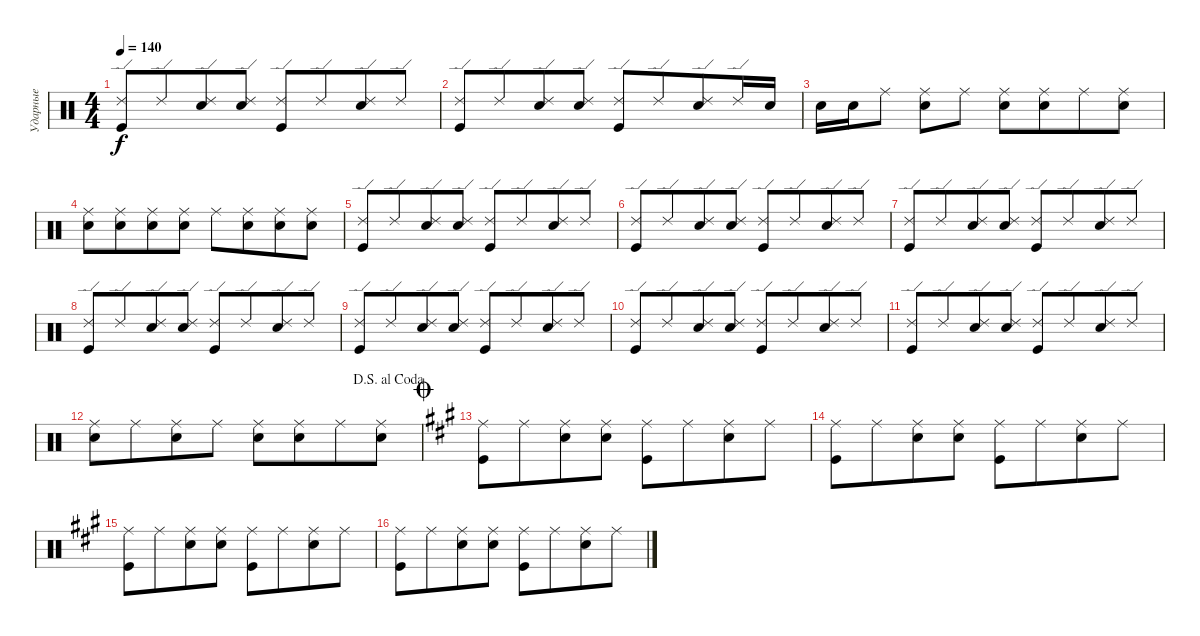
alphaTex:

\track ("Ударные" "Ударные") {instrument percussion}
\staff {score}
\articulation defaults
\ts (4 4)
\tempo 140
\clef neutral
\ks aminor
("Kick (hit)" "Ride (edge) 2").8{dy f} "Ride (edge) 2".8{beam merge} ("Snare (hit) 2" "Ride (edge) 2").8 ("Snare (hit) 2" "Ride (edge) 2").8 ("Kick (hit)" "Ride (edge) 2").8 "Ride (edge) 2".8{beam merge} ("Snare (hit) 2" "Ride (edge) 2").8 "Ride (edge) 2".8 |
("Kick (hit)" "Ride (edge) 2").8 "Ride (edge) 2".8{beam merge} ("Snare (hit) 2" "Ride (edge) 2").8 ("Snare (hit) 2" "Ride (edge) 2").8 ("Kick (hit)" "Ride (edge) 2").8 "Ride (edge) 2".8{beam merge} ("Snare (hit) 2" "Ride (edge) 2").8 "Ride (edge) 2".16 "Snare (hit) 2".16 |
"Snare (hit) 2".16 "Snare (hit) 2".16 "Ride (middle)".8 ("Snare (hit) 2" "Ride (middle)").8 "Ride (middle)".8 ("Snare (hit) 2" "Ride (middle)").8 ("Snare (hit) 2" "Ride (middle)").8{beam merge} "Ride (middle)".8 ("Snare (hit) 2" "Ride (middle)").8 |
("Snare (hit) 2" "Ride (middle)").8 ("Snare (hit) 2" "Ride (middle)").8{beam merge} ("Snare (hit) 2" "Ride (middle)").8 ("Snare (hit) 2" "Ride (middle)").8 "Ride (middle)".8 ("Snare (hit) 2" "Ride (middle)").8{beam merge} ("Ride (middle)" "Snare (hit) 2").8 ("Ride (middle)" "Snare (hit) 2").8 |
("Kick (hit)" "Ride (edge) 2").8 "Ride (edge) 2".8{beam merge} ("Snare (hit) 2" "Ride (edge) 2").8 ("Snare (hit) 2" "Ride (edge) 2").8 ("Kick (hit)" "Ride (edge) 2").8 "Ride (edge) 2".8{beam merge} ("Snare (hit) 2" "Ride (edge) 2").8 "Ride (edge) 2".8 |
("Kick (hit)" "Ride (edge) 2").8 "Ride (edge) 2".8{beam merge} ("Snare (hit) 2" "Ride (edge) 2").8 ("Snare (hit) 2" "Ride (edge) 2").8 ("Kick (hit)" "Ride (edge) 2").8 "Ride (edge) 2".8{beam merge} ("Snare (hit) 2" "Ride (edge) 2").8 "Ride (edge) 2".8 |
("Kick (hit)" "Ride (edge) 2").8 "Ride (edge) 2".8{beam merge} ("Snare (hit) 2" "Ride (edge) 2").8 ("Snare (hit) 2" "Ride (edge) 2").8 ("Kick (hit)" "Ride (edge) 2").8 "Ride (edge) 2".8{beam merge} ("Snare (hit) 2" "Ride (edge) 2").8 "Ride (edge) 2".8 |
("Kick (hit)" "Ride (edge) 2").8 "Ride (edge) 2".8{beam merge} ("Snare (hit) 2" "Ride (edge) 2").8 ("Snare (hit) 2" "Ride (edge) 2").8 ("Kick (hit)" "Ride (edge) 2").8 "Ride (edge) 2".8{beam merge} ("Snare (hit) 2" "Ride (edge) 2").8 "Ride (edge) 2".8 |
("Kick (hit)" "Ride (edge) 2").8 "Ride (edge) 2".8{beam merge} ("Snare (hit) 2" "Ride (edge) 2").8 ("Snare (hit) 2" "Ride (edge) 2").8 ("Kick (hit)" "Ride (edge) 2").8 "Ride (edge) 2".8{beam merge} ("Snare (hit) 2" "Ride (edge) 2").8 "Ride (edge) 2".8 |
("Kick (hit)" "Ride (edge) 2").8 "Ride (edge) 2".8{beam merge} ("Snare (hit) 2" "Ride (edge) 2").8 ("Snare (hit) 2" "Ride (edge) 2").8 ("Kick (hit)" "Ride (edge) 2").8 "Ride (edge) 2".8{beam merge} ("Snare (hit) 2" "Ride (edge) 2").8 "Ride (edge) 2".8 |
("Kick (hit)" "Ride (edge) 2").8 "Ride (edge) 2".8{beam merge} ("Snare (hit) 2" "Ride (edge) 2").8 ("Snare (hit) 2" "Ride (edge) 2").8 ("Kick (hit)" "Ride (edge) 2").8 "Ride (edge) 2".8{beam merge} ("Snare (hit) 2" "Ride (edge) 2").8 "Ride (edge) 2".8 |
\jump dalsegnoalcoda
("Snare (hit) 2" "Ride (middle)").8 "Ride (middle)".8{beam merge} ("Ride (middle)" "Snare (hit) 2").8 "Ride (middle)".8 ("Snare (hit) 2" "Ride (middle)").8 ("Ride (middle)" "Snare (hit) 2").8{beam merge} "Ride (middle)".8 ("Snare (hit) 2" "Ride (middle)").8 |
\jump coda
\ks a
("Kick (hit)" "Ride (middle)").8 "Ride (middle)".8{beam merge} ("Snare (hit) 2" "Ride (middle)").8 ("Ride (middle)" "Snare (hit) 2").8 ("Kick (hit)" "Ride (middle)").8 "Ride (middle)".8{beam merge} ("Snare (hit) 2" "Ride (middle)").8 "Ride (middle)".8 |
("Kick (hit)" "Ride (middle)").8 "Ride (middle)".8{beam merge} ("Snare (hit) 2" "Ride (middle)").8 ("Ride (middle)" "Snare (hit) 2").8 ("Kick (hit)" "Ride (middle)").8 "Ride (middle)".8{beam merge} ("Snare (hit) 2" "Ride (middle)").8 "Ride (middle)".8 |
("Kick (hit)" "Ride (middle)").8 "Ride (middle)".8{beam merge} ("Snare (hit) 2" "Ride (middle)").8 ("Ride (middle)" "Snare (hit) 2").8 ("Kick (hit)" "Ride (middle)").8 "Ride (middle)".8{beam merge} ("Snare (hit) 2" "Ride (middle)").8 "Ride (middle)".8 |
("Kick (hit)" "Ride (middle)").8 "Ride (middle)".8{beam merge} ("Snare (hit) 2" "Ride (middle)").8 ("Ride (middle)" "Snare (hit) 2").8 ("Kick (hit)" "Ride (middle)").8 "Ride (middle)".8{beam merge} ("Snare (hit) 2" "Ride (middle)").8 "Ride (middle)".8
